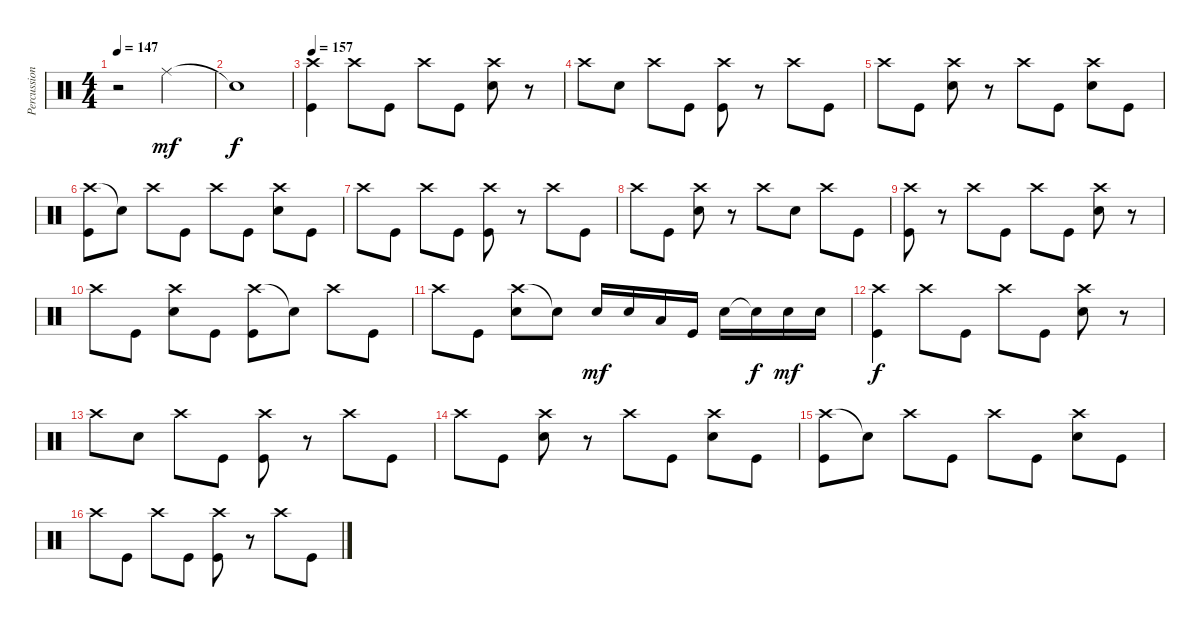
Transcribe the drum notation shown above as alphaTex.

\track ("Percussion" "Percussion") {instrument percussion}
\staff {score}
\articulation defaults
\ts (4 4)
\tempo 147
\clef neutral
\ks c
r.2{dy mf} "Ride (middle)".2 |
"Snare (hit)"{t}.1{dy f} |
\tempo 157
("Crash high (hit)" "Kick (hit)").4 "Crash high (hit)".8 "Kick (hit)".8 "Crash high (hit)".8 "Kick (hit)".8 ("Crash high (hit)" "Electric Snare (hit)").8 r.8 |
"Crash high (hit)".8 "Electric Snare (hit)".8 "Crash high (hit)".8 "Kick (hit)".8 ("Crash high (hit)" "Kick (hit)").8 r.8 "Crash high (hit)".8 "Kick (hit)".8 |
"Crash high (hit)".8 "Kick (hit)".8 ("Crash high (hit)" "Electric Snare (hit)").8 r.8 "Crash high (hit)".8 "Kick (hit)".8 ("Crash high (hit)" "Electric Snare (hit)").8 "Kick (hit)".8 |
("Crash high (hit)" "Kick (hit)").8 "Snare (hit)"{t}.8 "Crash high (hit)".8 "Kick (hit)".8 "Crash high (hit)".8 "Kick (hit)".8 ("Crash high (hit)" "Electric Snare (hit)").8 "Kick (hit)".8 |
"Crash high (hit)".8 "Kick (hit)".8 "Crash high (hit)".8 "Kick (hit)".8 ("Crash high (hit)" "Kick (hit)").8 r.8 "Crash high (hit)".8 "Kick (hit)".8 |
"Crash high (hit)".8 "Kick (hit)".8 ("Crash high (hit)" "Electric Snare (hit)").8 r.8 "Crash high (hit)".8 "Electric Snare (hit)".8 "Crash high (hit)".8 "Kick (hit)".8 |
("Crash high (hit)" "Kick (hit)").8 r.8 "Crash high (hit)".8 "Kick (hit)".8 "Crash high (hit)".8 "Kick (hit)".8 ("Crash high (hit)" "Electric Snare (hit)").8 r.8 |
"Crash high (hit)".8 "Kick (hit)".8 ("Crash high (hit)" "Electric Snare (hit)").8 "Kick (hit)".8 ("Crash high (hit)" "Kick (hit)").8 "Snare (hit)"{t}.8 "Crash high (hit)".8 "Kick (hit)".8 |
"Crash high (hit)".8 "Kick (hit)".8 ("Crash high (hit)" "Electric Snare (hit)").8 "Snare (hit)"{t}.8 "Electric Snare (hit)".16{dy mf} "Electric Snare (hit)".16 "Low Floor Tom (hit)".16 "Kick (hit)".16 "Electric Snare (hit)".16 "Snare (hit)"{t}.16{dy f} "Electric Snare (hit)".16{dy mf} "Electric Snare (hit)".16 |
("Crash high (hit)" "Kick (hit)").4{dy f} "Crash high (hit)".8 "Kick (hit)".8 "Crash high (hit)".8 "Kick (hit)".8 ("Crash high (hit)" "Electric Snare (hit)").8 r.8 |
"Crash high (hit)".8 "Electric Snare (hit)".8 "Crash high (hit)".8 "Kick (hit)".8 ("Crash high (hit)" "Kick (hit)").8 r.8 "Crash high (hit)".8 "Kick (hit)".8 |
"Crash high (hit)".8 "Kick (hit)".8 ("Crash high (hit)" "Electric Snare (hit)").8 r.8 "Crash high (hit)".8 "Kick (hit)".8 ("Crash high (hit)" "Electric Snare (hit)").8 "Kick (hit)".8 |
("Crash high (hit)" "Kick (hit)").8 "Snare (hit)"{t}.8 "Crash high (hit)".8 "Kick (hit)".8 "Crash high (hit)".8 "Kick (hit)".8 ("Crash high (hit)" "Electric Snare (hit)").8 "Kick (hit)".8 |
"Crash high (hit)".8 "Kick (hit)".8 "Crash high (hit)".8 "Kick (hit)".8 ("Crash high (hit)" "Kick (hit)").8 r.8 "Crash high (hit)".8 "Kick (hit)".8
